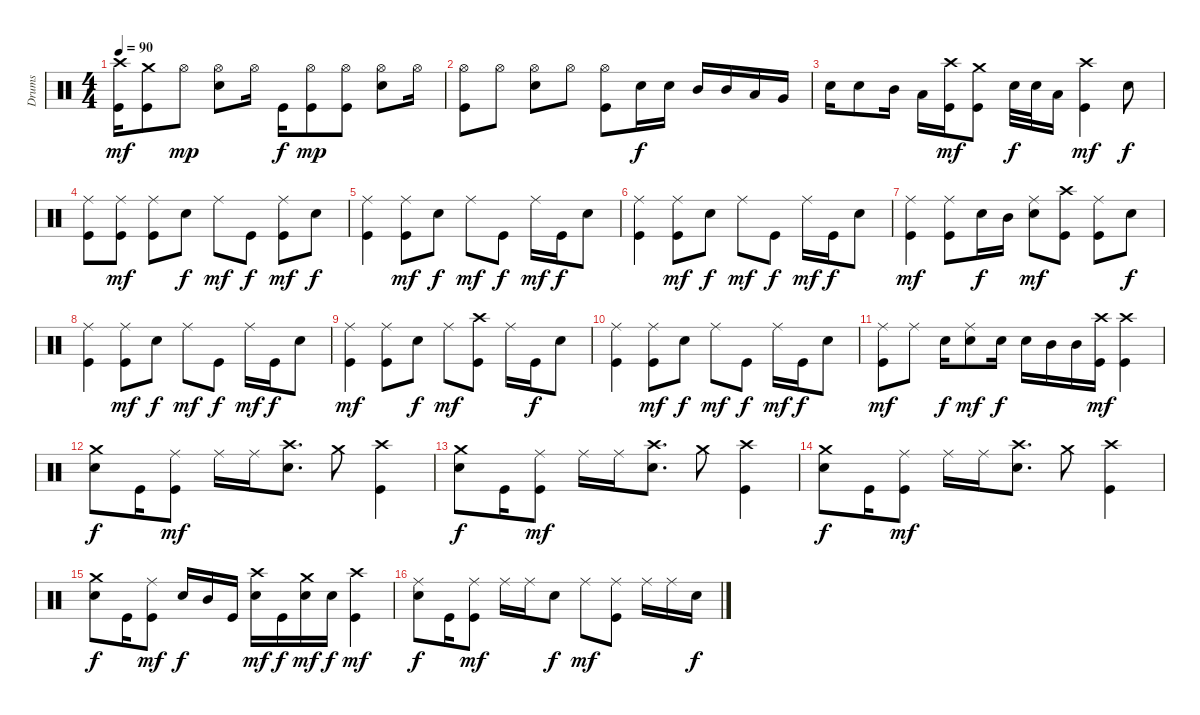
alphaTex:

\track ("Drums" "Drums") {instrument percussion}
\staff {score}
\articulation defaults
\ts (4 4)
\tempo 90
\clef neutral
\ks c
("Crash high (hit)" "Kick (hit)").16{dy mf} ("Crash medium (hit)" "Kick (hit)").8 "Hi-Hat (open)".8{dy mp} ("Hi-Hat (open)" "Snare (hit) 2").8 "Hi-Hat (open)".16 "Kick (hit)".16{dy f} ("Hi-Hat (open)" "Kick (hit)").8{dy mp} ("Hi-Hat (open)" "Kick (hit)").8 ("Hi-Hat (open)" "Snare (hit) 2").8 "Hi-Hat (open)".16 |
("Hi-Hat (open)" "Kick (hit)").8 "Hi-Hat (open)".8 ("Hi-Hat (open)" "Snare (hit) 2").8 "Hi-Hat (open)".8 ("Hi-Hat (open)" "Kick (hit)").8 "Snare (hit) 2".16{dy f} "Snare (hit) 2".16 "Mid Tom (hit)".16 "Mid Tom (hit)".16 "Low Tom (hit)".16 "Very Low Tom (hit)".16 |
"Snare (hit) 2".16 "Snare (hit) 2".8 "Mid Tom (hit)".16 "Low Tom (hit)".16 ("Crash high (hit)" "Kick (hit)").16{dy mf} ("Crash medium (hit)" "Kick (hit)").8 "Snare (hit) 2".32{dy f} "Snare (hit) 2".32 "Low Tom (hit)".16 ("Crash high (hit)" "Kick (hit)").4{dy mf} "Snare (hit) 2".8{dy f} |
("Ride (middle)" "Kick (hit)").8 ("Ride (middle)" "Kick (hit)").8{dy mf} ("Ride (middle)" "Kick (hit)").8 "Snare (hit) 2".8{dy f} "Ride (middle)".8{dy mf} "Kick (hit)".8{dy f} ("Ride (middle)" "Kick (hit)").8{dy mf} "Snare (hit) 2".8{dy f} |
("Ride (middle)" "Kick (hit)").4 ("Ride (middle)" "Kick (hit)").8{dy mf} "Snare (hit) 2".8{dy f} "Ride (middle)".8{dy mf} "Kick (hit)".8{dy f} "Ride (middle)".16{dy mf} "Kick (hit)".16{dy f} "Snare (hit) 2".8 |
("Ride (middle)" "Kick (hit)").4 ("Ride (middle)" "Kick (hit)").8{dy mf} "Snare (hit) 2".8{dy f} "Ride (middle)".8{dy mf} "Kick (hit)".8{dy f} "Ride (middle)".16{dy mf} "Kick (hit)".16{dy f} "Snare (hit) 2".8 |
("Ride (middle)" "Kick (hit)").4{dy mf} ("Ride (middle)" "Kick (hit)").8 "Snare (hit) 2".16{dy f} "Mid Tom (hit)".16 ("Ride (middle)" "Snare (hit) 2").8{dy mf} ("Crash high (hit)" "Kick (hit)").8 ("Ride (middle)" "Kick (hit)").8 "Snare (hit) 2".8{dy f} |
("Ride (middle)" "Kick (hit)").4 ("Ride (middle)" "Kick (hit)").8{dy mf} "Snare (hit) 2".8{dy f} "Ride (middle)".8{dy mf} "Kick (hit)".8{dy f} "Ride (middle)".16{dy mf} "Kick (hit)".16{dy f} "Snare (hit) 2".8 |
("Ride (middle)" "Kick (hit)").4{dy mf} ("Ride (middle)" "Kick (hit)").8 "Snare (hit) 2".8{dy f} "Ride (middle)".8{dy mf} ("Crash high (hit)" "Kick (hit)").8 "Ride (middle)".16 "Kick (hit)".16{dy f} "Snare (hit) 2".8 |
("Ride (middle)" "Kick (hit)").4 ("Ride (middle)" "Kick (hit)").8{dy mf} "Snare (hit) 2".8{dy f} "Ride (middle)".8{dy mf} "Kick (hit)".8{dy f} "Ride (middle)".16{dy mf} "Kick (hit)".16{dy f} "Snare (hit) 2".8 |
("Ride (middle)" "Kick (hit)").8{dy mf} "Ride (middle)".8 "Snare (hit) 2".16{dy f} ("Ride (middle)" "Snare (hit) 2").8{dy mf} "Snare (hit) 2".16{dy f} "Snare (hit) 2".16 "Mid Tom (hit)".16 "Mid Tom (hit)".16 ("Crash high (hit)" "Kick (hit)").16{dy mf} ("Crash high (hit)" "Kick (hit)").4 |
("Crash medium (hit)" "Snare (hit) 2").8{dy f} "Kick (hit)".16 ("Ride (middle)" "Kick (hit)").8{dy mf} "Ride (middle)".16 "Ride (middle)".16 ("Crash high (hit)" "Snare (hit) 2").8{d} "Crash medium (hit)".8 ("Crash high (hit)" "Kick (hit)").4 |
("Crash medium (hit)" "Snare (hit) 2").8{dy f} "Kick (hit)".16 ("Ride (middle)" "Kick (hit)").8{dy mf} "Ride (middle)".16 "Ride (middle)".16 ("Crash high (hit)" "Snare (hit) 2").8{d} "Crash medium (hit)".8 ("Crash high (hit)" "Kick (hit)").4 |
("Crash medium (hit)" "Snare (hit) 2").8{dy f} "Kick (hit)".16 ("Ride (middle)" "Kick (hit)").8{dy mf} "Ride (middle)".16 "Ride (middle)".16 ("Crash high (hit)" "Snare (hit) 2").8{d} "Crash medium (hit)".8 ("Crash high (hit)" "Kick (hit)").4 |
("Crash medium (hit)" "Snare (hit) 2").8{dy f} "Kick (hit)".16 ("Ride (middle)" "Kick (hit)").8{dy mf} "Snare (hit) 2".16{dy f} "Mid Tom (hit)".16 "Kick (hit)".16 ("Crash high (hit)" "Snare (hit) 2").16{dy mf} "Kick (hit)".16{dy f} ("Crash medium (hit)" "Snare (hit) 2").16{dy mf} "Snare (hit) 2".16{dy f} ("Crash high (hit)" "Kick (hit)").4{dy mf} |
("Ride (middle)" "Snare (hit) 2").8{dy f} "Kick (hit)".16 ("Ride (middle)" "Kick (hit)").8{dy mf} "Ride (middle)".16 "Ride (middle)".16 "Snare (hit) 2".8{dy f} "Ride (middle)".8{dy mf} ("Ride (middle)" "Kick (hit)").8 "Ride (middle)".16 "Ride (middle)".16 "Snare (hit) 2".16{dy f}
